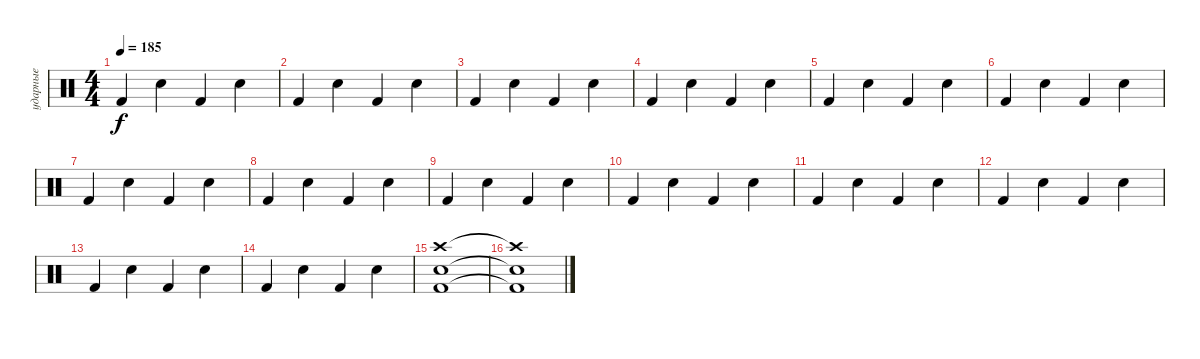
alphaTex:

\track ("ударные" "ударные") {instrument percussion}
\staff {score}
\articulation defaults
\ts (4 4)
\tempo 185
\clef neutral
\ks c "Kick (hit) 2".4{dy f} "Snare (hit) 2".4 "Kick (hit) 2".4 "Snare (hit) 2".4
|
"Kick (hit) 2".4 "Snare (hit) 2".4 "Kick (hit) 2".4 "Snare (hit) 2".4 |
"Kick (hit) 2".4 "Snare (hit) 2".4 "Kick (hit) 2".4 "Snare (hit) 2".4 |
"Kick (hit) 2".4 "Snare (hit) 2".4 "Kick (hit) 2".4 "Snare (hit) 2".4 |
"Kick (hit) 2".4 "Snare (hit) 2".4 "Kick (hit) 2".4 "Snare (hit) 2".4 |
"Kick (hit) 2".4 "Snare (hit) 2".4 "Kick (hit) 2".4 "Snare (hit) 2".4 |
"Kick (hit) 2".4 "Snare (hit) 2".4 "Kick (hit) 2".4 "Snare (hit) 2".4 |
"Kick (hit) 2".4 "Snare (hit) 2".4 "Kick (hit) 2".4 "Snare (hit) 2".4 |
"Kick (hit) 2".4 "Snare (hit) 2".4 "Kick (hit) 2".4 "Snare (hit) 2".4 |
"Kick (hit) 2".4 "Snare (hit) 2".4 "Kick (hit) 2".4 "Snare (hit) 2".4 |
"Kick (hit) 2".4 "Snare (hit) 2".4 "Kick (hit) 2".4 "Snare (hit) 2".4 |
"Kick (hit) 2".4 "Snare (hit) 2".4 "Kick (hit) 2".4 "Snare (hit) 2".4 |
"Kick (hit) 2".4 "Snare (hit) 2".4 "Kick (hit) 2".4 "Snare (hit) 2".4 |
"Kick (hit) 2".4 "Snare (hit) 2".4 "Kick (hit) 2".4 "Snare (hit) 2".4 |
("Crash high (hit)" "Snare (hit) 2" "Kick (hit) 2").1 |
("Crash high (hit)"{t} "Snare (hit) 2"{t} "Kick (hit) 2"{t}).1
